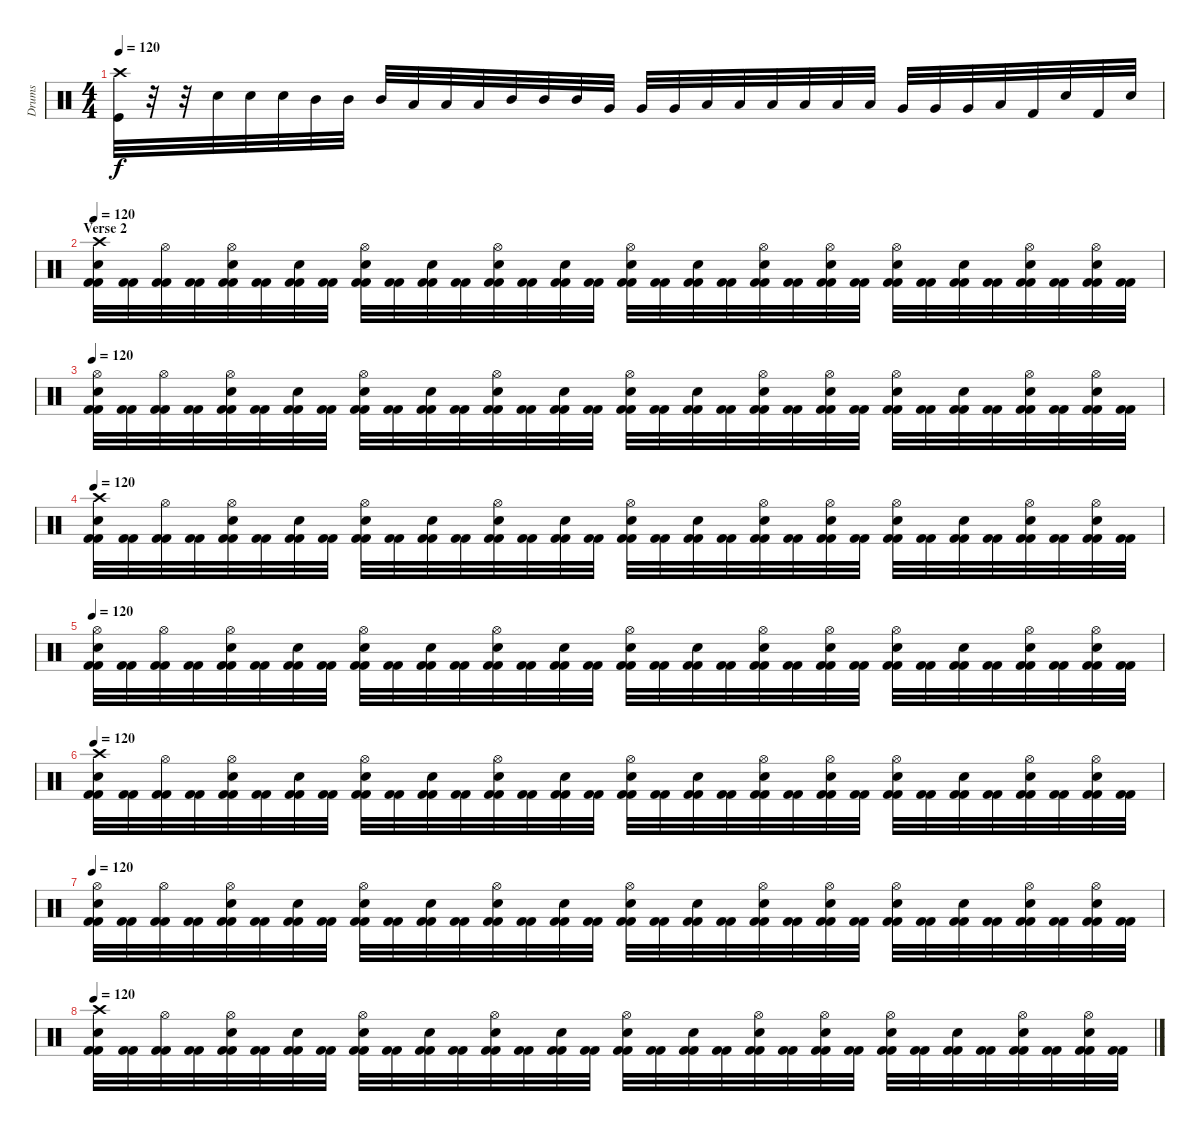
\track ("Drums" "Drums") {instrument percussion}
\staff {score}
\articulation defaults
\ts (4 4)
\tempo 120
\clef neutral
\ks c
("Crash high (hit)" "Kick (hit)").32{dy f} r.32 r.32 "Electric Snare (hit)".32 "Electric Snare (hit)".32 "Electric Snare (hit)".32 "Mid Tom (hit)".32 "Mid Tom (hit)".32 "Mid Tom (hit)".32 "Low Tom (hit)".32 "Low Tom (hit)".32 "Low Tom (hit)".32 "Mid Tom (hit)".32 "Mid Tom (hit)".32 "Mid Tom (hit)".32 "Very Low Tom (hit)".32 "Very Low Tom (hit)".32 "Very Low Tom (hit)".32 "Low Tom (hit)".32 "Low Tom (hit)".32 "Low Tom (hit)".32 "Low Floor Tom (hit)".32 "Low Floor Tom (hit)".32 "Low Floor Tom (hit)".32 "Very Low Tom (hit)".32 "Very Low Tom (hit)".32 "Very Low Tom (hit)".32 "Low Floor Tom (hit)".32 "Kick (hit) 2".32 "Electric Snare (hit)".32 "Kick (hit) 2".32 "Electric Snare (hit)".32 |
\section ("" "Verse 2")
\tempo 120
("Crash high (hit)" "Electric Snare (hit)" "Kick (hit) 2" "Kick (hit) 2").32 ("Kick (hit) 2" "Kick (hit) 2").32 ("Hi-Hat (open)" "Kick (hit) 2" "Kick (hit) 2").32 ("Kick (hit) 2" "Kick (hit) 2").32 ("Hi-Hat (open)" "Electric Snare (hit)" "Kick (hit) 2" "Kick (hit) 2").32 ("Kick (hit) 2" "Kick (hit) 2").32 ("Electric Snare (hit)" "Kick (hit) 2" "Kick (hit) 2").32 ("Kick (hit) 2" "Kick (hit) 2").32 ("Hi-Hat (open)" "Electric Snare (hit)" "Kick (hit) 2" "Kick (hit) 2").32 ("Kick (hit) 2" "Kick (hit) 2").32 ("Electric Snare (hit)" "Kick (hit) 2" "Kick (hit) 2").32 ("Kick (hit) 2" "Kick (hit) 2").32 ("Hi-Hat (open)" "Electric Snare (hit)" "Kick (hit) 2" "Kick (hit) 2").32 ("Kick (hit) 2" "Kick (hit) 2").32 ("Electric Snare (hit)" "Kick (hit) 2" "Kick (hit) 2").32 ("Kick (hit) 2" "Kick (hit) 2").32 ("Hi-Hat (open)" "Electric Snare (hit)" "Kick (hit) 2" "Kick (hit) 2").32 ("Kick (hit) 2" "Kick (hit) 2").32 ("Electric Snare (hit)" "Kick (hit) 2" "Kick (hit) 2").32 ("Kick (hit) 2" "Kick (hit) 2").32 ("Hi-Hat (open)" "Electric Snare (hit)" "Kick (hit) 2" "Kick (hit) 2").32 ("Kick (hit) 2" "Kick (hit) 2").32 ("Hi-Hat (open)" "Electric Snare (hit)" "Kick (hit) 2" "Kick (hit) 2").32 ("Kick (hit) 2" "Kick (hit) 2").32 ("Hi-Hat (open)" "Electric Snare (hit)" "Kick (hit) 2" "Kick (hit) 2").32 ("Kick (hit) 2" "Kick (hit) 2").32 ("Electric Snare (hit)" "Kick (hit) 2" "Kick (hit) 2").32 ("Kick (hit) 2" "Kick (hit) 2").32 ("Hi-Hat (open)" "Electric Snare (hit)" "Kick (hit) 2" "Kick (hit) 2").32 ("Kick (hit) 2" "Kick (hit) 2").32 ("Hi-Hat (open)" "Electric Snare (hit)" "Kick (hit) 2" "Kick (hit) 2").32 ("Kick (hit) 2" "Kick (hit) 2").32 |
\tempo 120
("Hi-Hat (open)" "Electric Snare (hit)" "Kick (hit) 2" "Kick (hit) 2").32 ("Kick (hit) 2" "Kick (hit) 2").32 ("Hi-Hat (open)" "Kick (hit) 2" "Kick (hit) 2").32 ("Kick (hit) 2" "Kick (hit) 2").32 ("Hi-Hat (open)" "Electric Snare (hit)" "Kick (hit) 2" "Kick (hit) 2").32 ("Kick (hit) 2" "Kick (hit) 2").32 ("Electric Snare (hit)" "Kick (hit) 2" "Kick (hit) 2").32 ("Kick (hit) 2" "Kick (hit) 2").32 ("Hi-Hat (open)" "Electric Snare (hit)" "Kick (hit) 2" "Kick (hit) 2").32 ("Kick (hit) 2" "Kick (hit) 2").32 ("Electric Snare (hit)" "Kick (hit) 2" "Kick (hit) 2").32 ("Kick (hit) 2" "Kick (hit) 2").32 ("Hi-Hat (open)" "Electric Snare (hit)" "Kick (hit) 2" "Kick (hit) 2").32 ("Kick (hit) 2" "Kick (hit) 2").32 ("Electric Snare (hit)" "Kick (hit) 2" "Kick (hit) 2").32 ("Kick (hit) 2" "Kick (hit) 2").32 ("Hi-Hat (open)" "Electric Snare (hit)" "Kick (hit) 2" "Kick (hit) 2").32 ("Kick (hit) 2" "Kick (hit) 2").32 ("Electric Snare (hit)" "Kick (hit) 2" "Kick (hit) 2").32 ("Kick (hit) 2" "Kick (hit) 2").32 ("Hi-Hat (open)" "Electric Snare (hit)" "Kick (hit) 2" "Kick (hit) 2").32 ("Kick (hit) 2" "Kick (hit) 2").32 ("Hi-Hat (open)" "Electric Snare (hit)" "Kick (hit) 2" "Kick (hit) 2").32 ("Kick (hit) 2" "Kick (hit) 2").32 ("Hi-Hat (open)" "Electric Snare (hit)" "Kick (hit) 2" "Kick (hit) 2").32 ("Kick (hit) 2" "Kick (hit) 2").32 ("Electric Snare (hit)" "Kick (hit) 2" "Kick (hit) 2").32 ("Kick (hit) 2" "Kick (hit) 2").32 ("Hi-Hat (open)" "Electric Snare (hit)" "Kick (hit) 2" "Kick (hit) 2").32 ("Kick (hit) 2" "Kick (hit) 2").32 ("Hi-Hat (open)" "Electric Snare (hit)" "Kick (hit) 2" "Kick (hit) 2").32 ("Kick (hit) 2" "Kick (hit) 2").32 |
\tempo 120
("Crash high (hit)" "Electric Snare (hit)" "Kick (hit) 2" "Kick (hit) 2").32 ("Kick (hit) 2" "Kick (hit) 2").32 ("Hi-Hat (open)" "Kick (hit) 2" "Kick (hit) 2").32 ("Kick (hit) 2" "Kick (hit) 2").32 ("Hi-Hat (open)" "Electric Snare (hit)" "Kick (hit) 2" "Kick (hit) 2").32 ("Kick (hit) 2" "Kick (hit) 2").32 ("Electric Snare (hit)" "Kick (hit) 2" "Kick (hit) 2").32 ("Kick (hit) 2" "Kick (hit) 2").32 ("Hi-Hat (open)" "Electric Snare (hit)" "Kick (hit) 2" "Kick (hit) 2").32 ("Kick (hit) 2" "Kick (hit) 2").32 ("Electric Snare (hit)" "Kick (hit) 2" "Kick (hit) 2").32 ("Kick (hit) 2" "Kick (hit) 2").32 ("Hi-Hat (open)" "Electric Snare (hit)" "Kick (hit) 2" "Kick (hit) 2").32 ("Kick (hit) 2" "Kick (hit) 2").32 ("Electric Snare (hit)" "Kick (hit) 2" "Kick (hit) 2").32 ("Kick (hit) 2" "Kick (hit) 2").32 ("Hi-Hat (open)" "Electric Snare (hit)" "Kick (hit) 2" "Kick (hit) 2").32 ("Kick (hit) 2" "Kick (hit) 2").32 ("Electric Snare (hit)" "Kick (hit) 2" "Kick (hit) 2").32 ("Kick (hit) 2" "Kick (hit) 2").32 ("Hi-Hat (open)" "Electric Snare (hit)" "Kick (hit) 2" "Kick (hit) 2").32 ("Kick (hit) 2" "Kick (hit) 2").32 ("Hi-Hat (open)" "Electric Snare (hit)" "Kick (hit) 2" "Kick (hit) 2").32 ("Kick (hit) 2" "Kick (hit) 2").32 ("Hi-Hat (open)" "Electric Snare (hit)" "Kick (hit) 2" "Kick (hit) 2").32 ("Kick (hit) 2" "Kick (hit) 2").32 ("Electric Snare (hit)" "Kick (hit) 2" "Kick (hit) 2").32 ("Kick (hit) 2" "Kick (hit) 2").32 ("Hi-Hat (open)" "Electric Snare (hit)" "Kick (hit) 2" "Kick (hit) 2").32 ("Kick (hit) 2" "Kick (hit) 2").32 ("Hi-Hat (open)" "Electric Snare (hit)" "Kick (hit) 2" "Kick (hit) 2").32 ("Kick (hit) 2" "Kick (hit) 2").32 |
\tempo 120
("Hi-Hat (open)" "Electric Snare (hit)" "Kick (hit) 2" "Kick (hit) 2").32 ("Kick (hit) 2" "Kick (hit) 2").32 ("Hi-Hat (open)" "Kick (hit) 2" "Kick (hit) 2").32 ("Kick (hit) 2" "Kick (hit) 2").32 ("Hi-Hat (open)" "Electric Snare (hit)" "Kick (hit) 2" "Kick (hit) 2").32 ("Kick (hit) 2" "Kick (hit) 2").32 ("Electric Snare (hit)" "Kick (hit) 2" "Kick (hit) 2").32 ("Kick (hit) 2" "Kick (hit) 2").32 ("Hi-Hat (open)" "Electric Snare (hit)" "Kick (hit) 2" "Kick (hit) 2").32 ("Kick (hit) 2" "Kick (hit) 2").32 ("Electric Snare (hit)" "Kick (hit) 2" "Kick (hit) 2").32 ("Kick (hit) 2" "Kick (hit) 2").32 ("Hi-Hat (open)" "Electric Snare (hit)" "Kick (hit) 2" "Kick (hit) 2").32 ("Kick (hit) 2" "Kick (hit) 2").32 ("Electric Snare (hit)" "Kick (hit) 2" "Kick (hit) 2").32 ("Kick (hit) 2" "Kick (hit) 2").32 ("Hi-Hat (open)" "Electric Snare (hit)" "Kick (hit) 2" "Kick (hit) 2").32 ("Kick (hit) 2" "Kick (hit) 2").32 ("Electric Snare (hit)" "Kick (hit) 2" "Kick (hit) 2").32 ("Kick (hit) 2" "Kick (hit) 2").32 ("Hi-Hat (open)" "Electric Snare (hit)" "Kick (hit) 2" "Kick (hit) 2").32 ("Kick (hit) 2" "Kick (hit) 2").32 ("Hi-Hat (open)" "Electric Snare (hit)" "Kick (hit) 2" "Kick (hit) 2").32 ("Kick (hit) 2" "Kick (hit) 2").32 ("Hi-Hat (open)" "Electric Snare (hit)" "Kick (hit) 2" "Kick (hit) 2").32 ("Kick (hit) 2" "Kick (hit) 2").32 ("Electric Snare (hit)" "Kick (hit) 2" "Kick (hit) 2").32 ("Kick (hit) 2" "Kick (hit) 2").32 ("Hi-Hat (open)" "Electric Snare (hit)" "Kick (hit) 2" "Kick (hit) 2").32 ("Kick (hit) 2" "Kick (hit) 2").32 ("Hi-Hat (open)" "Electric Snare (hit)" "Kick (hit) 2" "Kick (hit) 2").32 ("Kick (hit) 2" "Kick (hit) 2").32 |
\tempo 120
("Crash high (hit)" "Electric Snare (hit)" "Kick (hit) 2" "Kick (hit) 2").32 ("Kick (hit) 2" "Kick (hit) 2").32 ("Hi-Hat (open)" "Kick (hit) 2" "Kick (hit) 2").32 ("Kick (hit) 2" "Kick (hit) 2").32 ("Hi-Hat (open)" "Electric Snare (hit)" "Kick (hit) 2" "Kick (hit) 2").32 ("Kick (hit) 2" "Kick (hit) 2").32 ("Electric Snare (hit)" "Kick (hit) 2" "Kick (hit) 2").32 ("Kick (hit) 2" "Kick (hit) 2").32 ("Hi-Hat (open)" "Electric Snare (hit)" "Kick (hit) 2" "Kick (hit) 2").32 ("Kick (hit) 2" "Kick (hit) 2").32 ("Electric Snare (hit)" "Kick (hit) 2" "Kick (hit) 2").32 ("Kick (hit) 2" "Kick (hit) 2").32 ("Hi-Hat (open)" "Electric Snare (hit)" "Kick (hit) 2" "Kick (hit) 2").32 ("Kick (hit) 2" "Kick (hit) 2").32 ("Electric Snare (hit)" "Kick (hit) 2" "Kick (hit) 2").32 ("Kick (hit) 2" "Kick (hit) 2").32 ("Hi-Hat (open)" "Electric Snare (hit)" "Kick (hit) 2" "Kick (hit) 2").32 ("Kick (hit) 2" "Kick (hit) 2").32 ("Electric Snare (hit)" "Kick (hit) 2" "Kick (hit) 2").32 ("Kick (hit) 2" "Kick (hit) 2").32 ("Hi-Hat (open)" "Electric Snare (hit)" "Kick (hit) 2" "Kick (hit) 2").32 ("Kick (hit) 2" "Kick (hit) 2").32 ("Hi-Hat (open)" "Electric Snare (hit)" "Kick (hit) 2" "Kick (hit) 2").32 ("Kick (hit) 2" "Kick (hit) 2").32 ("Hi-Hat (open)" "Electric Snare (hit)" "Kick (hit) 2" "Kick (hit) 2").32 ("Kick (hit) 2" "Kick (hit) 2").32 ("Electric Snare (hit)" "Kick (hit) 2" "Kick (hit) 2").32 ("Kick (hit) 2" "Kick (hit) 2").32 ("Hi-Hat (open)" "Electric Snare (hit)" "Kick (hit) 2" "Kick (hit) 2").32 ("Kick (hit) 2" "Kick (hit) 2").32 ("Hi-Hat (open)" "Electric Snare (hit)" "Kick (hit) 2" "Kick (hit) 2").32 ("Kick (hit) 2" "Kick (hit) 2").32 |
\tempo 120
("Hi-Hat (open)" "Electric Snare (hit)" "Kick (hit) 2" "Kick (hit) 2").32 ("Kick (hit) 2" "Kick (hit) 2").32 ("Hi-Hat (open)" "Kick (hit) 2" "Kick (hit) 2").32 ("Kick (hit) 2" "Kick (hit) 2").32 ("Hi-Hat (open)" "Electric Snare (hit)" "Kick (hit) 2" "Kick (hit) 2").32 ("Kick (hit) 2" "Kick (hit) 2").32 ("Electric Snare (hit)" "Kick (hit) 2" "Kick (hit) 2").32 ("Kick (hit) 2" "Kick (hit) 2").32 ("Hi-Hat (open)" "Electric Snare (hit)" "Kick (hit) 2" "Kick (hit) 2").32 ("Kick (hit) 2" "Kick (hit) 2").32 ("Electric Snare (hit)" "Kick (hit) 2" "Kick (hit) 2").32 ("Kick (hit) 2" "Kick (hit) 2").32 ("Hi-Hat (open)" "Electric Snare (hit)" "Kick (hit) 2" "Kick (hit) 2").32 ("Kick (hit) 2" "Kick (hit) 2").32 ("Electric Snare (hit)" "Kick (hit) 2" "Kick (hit) 2").32 ("Kick (hit) 2" "Kick (hit) 2").32 ("Hi-Hat (open)" "Electric Snare (hit)" "Kick (hit) 2" "Kick (hit) 2").32 ("Kick (hit) 2" "Kick (hit) 2").32 ("Electric Snare (hit)" "Kick (hit) 2" "Kick (hit) 2").32 ("Kick (hit) 2" "Kick (hit) 2").32 ("Hi-Hat (open)" "Electric Snare (hit)" "Kick (hit) 2" "Kick (hit) 2").32 ("Kick (hit) 2" "Kick (hit) 2").32 ("Hi-Hat (open)" "Electric Snare (hit)" "Kick (hit) 2" "Kick (hit) 2").32 ("Kick (hit) 2" "Kick (hit) 2").32 ("Hi-Hat (open)" "Electric Snare (hit)" "Kick (hit) 2" "Kick (hit) 2").32 ("Kick (hit) 2" "Kick (hit) 2").32 ("Electric Snare (hit)" "Kick (hit) 2" "Kick (hit) 2").32 ("Kick (hit) 2" "Kick (hit) 2").32 ("Hi-Hat (open)" "Electric Snare (hit)" "Kick (hit) 2" "Kick (hit) 2").32 ("Kick (hit) 2" "Kick (hit) 2").32 ("Hi-Hat (open)" "Electric Snare (hit)" "Kick (hit) 2" "Kick (hit) 2").32 ("Kick (hit) 2" "Kick (hit) 2").32 |
\tempo 120
("Crash high (hit)" "Electric Snare (hit)" "Kick (hit) 2" "Kick (hit) 2").32 ("Kick (hit) 2" "Kick (hit) 2").32 ("Hi-Hat (open)" "Kick (hit) 2" "Kick (hit) 2").32 ("Kick (hit) 2" "Kick (hit) 2").32 ("Hi-Hat (open)" "Electric Snare (hit)" "Kick (hit) 2" "Kick (hit) 2").32 ("Kick (hit) 2" "Kick (hit) 2").32 ("Electric Snare (hit)" "Kick (hit) 2" "Kick (hit) 2").32 ("Kick (hit) 2" "Kick (hit) 2").32 ("Hi-Hat (open)" "Electric Snare (hit)" "Kick (hit) 2" "Kick (hit) 2").32 ("Kick (hit) 2" "Kick (hit) 2").32 ("Electric Snare (hit)" "Kick (hit) 2" "Kick (hit) 2").32 ("Kick (hit) 2" "Kick (hit) 2").32 ("Hi-Hat (open)" "Electric Snare (hit)" "Kick (hit) 2" "Kick (hit) 2").32 ("Kick (hit) 2" "Kick (hit) 2").32 ("Electric Snare (hit)" "Kick (hit) 2" "Kick (hit) 2").32 ("Kick (hit) 2" "Kick (hit) 2").32 ("Hi-Hat (open)" "Electric Snare (hit)" "Kick (hit) 2" "Kick (hit) 2").32 ("Kick (hit) 2" "Kick (hit) 2").32 ("Electric Snare (hit)" "Kick (hit) 2" "Kick (hit) 2").32 ("Kick (hit) 2" "Kick (hit) 2").32 ("Hi-Hat (open)" "Electric Snare (hit)" "Kick (hit) 2" "Kick (hit) 2").32 ("Kick (hit) 2" "Kick (hit) 2").32 ("Hi-Hat (open)" "Electric Snare (hit)" "Kick (hit) 2" "Kick (hit) 2").32 ("Kick (hit) 2" "Kick (hit) 2").32 ("Hi-Hat (open)" "Electric Snare (hit)" "Kick (hit) 2" "Kick (hit) 2").32 ("Kick (hit) 2" "Kick (hit) 2").32 ("Electric Snare (hit)" "Kick (hit) 2" "Kick (hit) 2").32 ("Kick (hit) 2" "Kick (hit) 2").32 ("Hi-Hat (open)" "Electric Snare (hit)" "Kick (hit) 2" "Kick (hit) 2").32 ("Kick (hit) 2" "Kick (hit) 2").32 ("Hi-Hat (open)" "Electric Snare (hit)" "Kick (hit) 2" "Kick (hit) 2").32 ("Kick (hit) 2" "Kick (hit) 2").32
